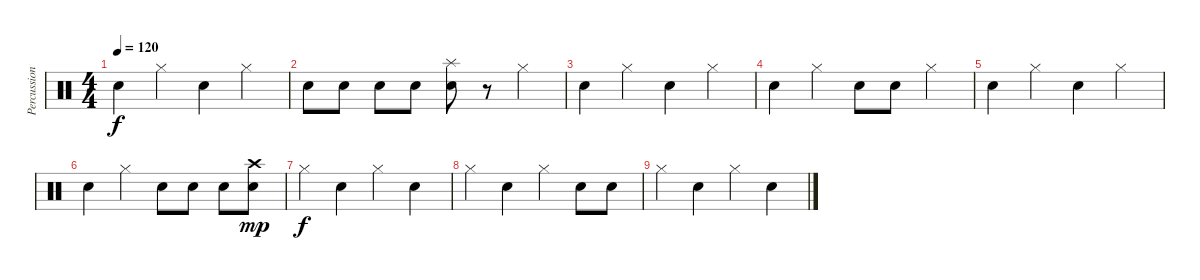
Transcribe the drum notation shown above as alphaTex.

\track ("Percussion" "Percussion") {instrument percussion}
\staff {score}
\articulation defaults
\ts (4 4)
\tempo 120
\clef neutral
\ks c "Snare (hit) 2".4{dy f} "Hi-Hat (closed)".4 "Electric Snare (hit)".4 "Hi-Hat (closed)".4
|
"Snare (hit) 2".8 "Snare (hit) 2".8 "Snare (hit) 2".8 "Snare (hit) 2".8 ("Splash (hit)" "Electric Snare (hit)").8 r.8 "Hi-Hat (closed)".4 |
"Electric Snare (hit)".4 "Hi-Hat (closed)".4 "Snare (hit) 2".4 "Hi-Hat (closed)".4 |
"Electric Snare (hit)".4 "Hi-Hat (closed)".4 "Snare (hit) 2".8 "Snare (hit) 2".8 "Hi-Hat (closed)".4 |
"Electric Snare (hit)".4 "Hi-Hat (closed)".4 "Snare (hit) 2".4 "Hi-Hat (closed)".4 |
"Electric Snare (hit)".4 "Hi-Hat (closed)".4 "Snare (hit) 2".8 "Snare (hit) 2".8 "Snare (hit) 2".8 ("Crash high (hit)" "Snare (hit) 2").8{dy mp} |
"Hi-Hat (closed)".4{dy f} "Electric Snare (hit)".4 "Hi-Hat (closed)".4 "Snare (hit) 2".4 |
"Hi-Hat (closed)".4 "Electric Snare (hit)".4 "Hi-Hat (closed)".4 "Snare (hit) 2".8 "Snare (hit) 2".8 |
"Hi-Hat (closed)".4 "Electric Snare (hit)".4 "Hi-Hat (closed)".4 "Snare (hit) 2".4
